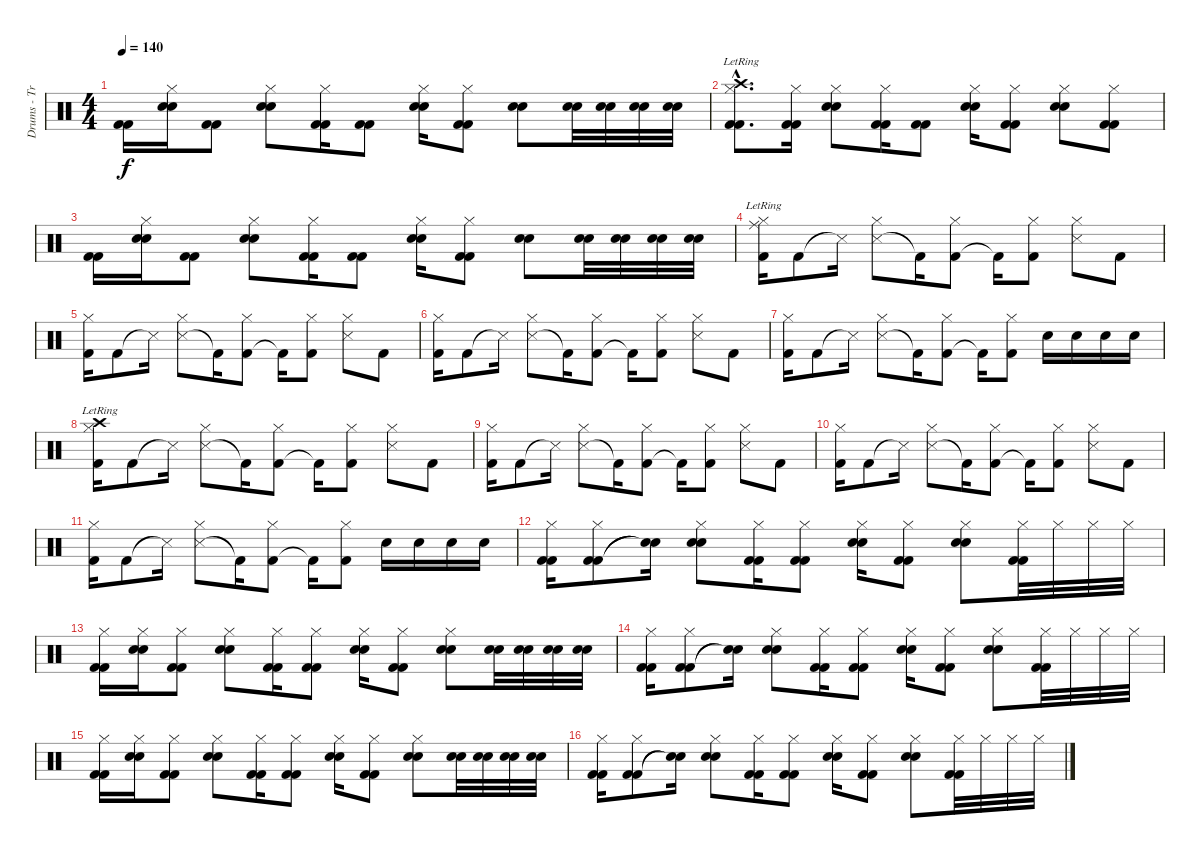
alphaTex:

\track ("Drums - Travis Barker" "Drums - Tr") {instrument percussion}
\staff {score}
\articulation defaults
\ts (4 4)
\tempo 140
\clef neutral
\ks c
("Kick (hit) 2" "Kick (hit) 2").16{dy f} ("Snare (hit) 2" "Snare (hit) 2" "Hi-Hat (closed)").16 ("Kick (hit) 2" "Kick (hit) 2").8 ("Snare (hit) 2" "Snare (hit) 2" "Hi-Hat (closed)").8 ("Kick (hit) 2" "Kick (hit) 2" "Hi-Hat (closed)").16 ("Kick (hit) 2" "Kick (hit) 2").8 ("Snare (hit) 2" "Snare (hit) 2" "Hi-Hat (closed)").16 ("Kick (hit) 2" "Kick (hit) 2" "Hi-Hat (closed)").8 ("Snare (hit) 2" "Snare (hit) 2").8 ("Snare (hit) 2" "Snare (hit) 2").32 ("Snare (hit) 2" "Snare (hit) 2").32 ("Snare (hit) 2" "Snare (hit) 2").32 ("Snare (hit) 2" "Snare (hit) 2").32 |
("Kick (hit) 2"{hac} "Kick (hit) 2"{hac} "Hi-Hat (closed)"{hac} "Crash high (hit)"{hac lr}).8{d} ("Kick (hit) 2" "Kick (hit) 2" "Hi-Hat (closed)").16 ("Snare (hit) 2" "Snare (hit) 2" "Hi-Hat (closed)").8 ("Kick (hit) 2" "Kick (hit) 2" "Hi-Hat (closed)").16 ("Kick (hit) 2" "Kick (hit) 2").8 ("Snare (hit) 2" "Snare (hit) 2" "Hi-Hat (closed)").16 ("Kick (hit) 2" "Kick (hit) 2" "Hi-Hat (closed)").8 ("Snare (hit) 2" "Snare (hit) 2" "Hi-Hat (closed)").8 ("Kick (hit) 2" "Kick (hit) 2" "Hi-Hat (closed)").8 |
("Kick (hit) 2" "Kick (hit) 2").16 ("Snare (hit) 2" "Snare (hit) 2" "Hi-Hat (closed)").16 ("Kick (hit) 2" "Kick (hit) 2").8 ("Snare (hit) 2" "Snare (hit) 2" "Hi-Hat (closed)").8 ("Kick (hit) 2" "Kick (hit) 2" "Hi-Hat (closed)").16 ("Kick (hit) 2" "Kick (hit) 2").8 ("Snare (hit) 2" "Snare (hit) 2" "Hi-Hat (closed)").16 ("Kick (hit) 2" "Kick (hit) 2" "Hi-Hat (closed)").8 ("Snare (hit) 2" "Snare (hit) 2").8 ("Snare (hit) 2" "Snare (hit) 2").32 ("Snare (hit) 2" "Snare (hit) 2").32 ("Snare (hit) 2" "Snare (hit) 2").32 ("Snare (hit) 2" "Snare (hit) 2").32 |
("Kick (hit) 2" "Hi-Hat (closed)" "Ride (middle)"{lr}).16 "Kick (hit) 2".8 "Snare (side stick) 3"{t}.16 ("Snare (side stick) 3" "Hi-Hat (closed)").8 "Kick (hit) 2"{t}.16 ("Kick (hit) 2" "Hi-Hat (closed)").8 "Kick (hit) 2"{t}.16 ("Kick (hit) 2" "Hi-Hat (closed)").8 ("Snare (side stick) 3" "Hi-Hat (closed)").8 "Kick (hit) 2".8 |
("Kick (hit) 2" "Hi-Hat (closed)").16 "Kick (hit) 2".8 "Snare (side stick) 3"{t}.16 ("Snare (side stick) 3" "Hi-Hat (closed)").8 "Kick (hit) 2"{t}.16 ("Kick (hit) 2" "Hi-Hat (closed)").8 "Kick (hit) 2"{t}.16 ("Kick (hit) 2" "Hi-Hat (closed)").8 ("Snare (side stick) 3" "Hi-Hat (closed)").8 "Kick (hit) 2".8 |
("Kick (hit) 2" "Hi-Hat (closed)").16 "Kick (hit) 2".8 "Snare (side stick) 3"{t}.16 ("Snare (side stick) 3" "Hi-Hat (closed)").8 "Kick (hit) 2"{t}.16 ("Kick (hit) 2" "Hi-Hat (closed)").8 "Kick (hit) 2"{t}.16 ("Kick (hit) 2" "Hi-Hat (closed)").8 ("Snare (side stick) 3" "Hi-Hat (closed)").8 "Kick (hit) 2".8 |
("Kick (hit) 2" "Hi-Hat (closed)").16 "Kick (hit) 2".8 "Snare (side stick) 3"{t}.16 ("Snare (side stick) 3" "Hi-Hat (closed)").8 "Kick (hit) 2"{t}.16 ("Kick (hit) 2" "Hi-Hat (closed)").8 "Kick (hit) 2"{t}.16 ("Kick (hit) 2" "Hi-Hat (closed)").8 "Snare (hit) 2".16 "Snare (hit) 2".16 "Snare (hit) 2".16 "Snare (hit) 2".16 |
("Kick (hit) 2" "Hi-Hat (closed)" "Crash high (hit)"{lr}).16 "Kick (hit) 2".8 "Snare (side stick) 3"{t}.16 ("Snare (side stick) 3" "Hi-Hat (closed)").8 "Kick (hit) 2"{t}.16 ("Kick (hit) 2" "Hi-Hat (closed)").8 "Kick (hit) 2"{t}.16 ("Kick (hit) 2" "Hi-Hat (closed)").8 ("Snare (side stick) 3" "Hi-Hat (closed)").8 "Kick (hit) 2".8 |
("Kick (hit) 2" "Hi-Hat (closed)").16 "Kick (hit) 2".8 "Snare (side stick) 3"{t}.16 ("Snare (side stick) 3" "Hi-Hat (closed)").8 "Kick (hit) 2"{t}.16 ("Kick (hit) 2" "Hi-Hat (closed)").8 "Kick (hit) 2"{t}.16 ("Kick (hit) 2" "Hi-Hat (closed)").8 ("Snare (side stick) 3" "Hi-Hat (closed)").8 "Kick (hit) 2".8 |
("Kick (hit) 2" "Hi-Hat (closed)").16 "Kick (hit) 2".8 "Snare (side stick) 3"{t}.16 ("Snare (side stick) 3" "Hi-Hat (closed)").8 "Kick (hit) 2"{t}.16 ("Kick (hit) 2" "Hi-Hat (closed)").8 "Kick (hit) 2"{t}.16 ("Kick (hit) 2" "Hi-Hat (closed)").8 ("Snare (side stick) 3" "Hi-Hat (closed)").8 "Kick (hit) 2".8 |
("Kick (hit) 2" "Hi-Hat (closed)").16 "Kick (hit) 2".8 "Snare (side stick) 3"{t}.16 ("Snare (side stick) 3" "Hi-Hat (closed)").8 "Kick (hit) 2"{t}.16 ("Kick (hit) 2" "Hi-Hat (closed)").8 "Kick (hit) 2"{t}.16 ("Kick (hit) 2" "Hi-Hat (closed)").8 "Snare (hit) 2".16 "Snare (hit) 2".16 "Snare (hit) 2".16 "Snare (hit) 2".16 |
("Kick (hit) 2" "Kick (hit) 2" "Hi-Hat (closed)").16 ("Kick (hit) 2" "Kick (hit) 2" "Hi-Hat (closed)").8 ("Snare (hit) 2"{t} "Snare (hit) 2"{t}).16 ("Snare (hit) 2" "Snare (hit) 2" "Hi-Hat (closed)").8 ("Kick (hit) 2" "Kick (hit) 2" "Hi-Hat (closed)").16 ("Kick (hit) 2" "Kick (hit) 2" "Hi-Hat (closed)").8 ("Snare (hit) 2" "Snare (hit) 2" "Hi-Hat (closed)").16 ("Kick (hit) 2" "Kick (hit) 2" "Hi-Hat (closed)").8 ("Snare (hit) 2" "Snare (hit) 2" "Hi-Hat (closed)").8 ("Kick (hit) 2" "Kick (hit) 2" "Hi-Hat (closed)").32 "Hi-Hat (closed)".32 "Hi-Hat (closed)".32 "Hi-Hat (closed)".32 |
("Kick (hit) 2" "Kick (hit) 2" "Hi-Hat (closed)").16 ("Snare (hit) 2" "Snare (hit) 2" "Hi-Hat (closed)").16 ("Kick (hit) 2" "Kick (hit) 2" "Hi-Hat (closed)").8 ("Snare (hit) 2" "Snare (hit) 2" "Hi-Hat (closed)").8 ("Kick (hit) 2" "Kick (hit) 2" "Hi-Hat (closed)").16 ("Kick (hit) 2" "Kick (hit) 2" "Hi-Hat (closed)").8 ("Snare (hit) 2" "Snare (hit) 2" "Hi-Hat (closed)").16 ("Kick (hit) 2" "Kick (hit) 2" "Hi-Hat (closed)").8 ("Snare (hit) 2" "Snare (hit) 2" "Hi-Hat (closed)").8 ("Snare (hit) 2" "Snare (hit) 2").32 ("Snare (hit) 2" "Snare (hit) 2").32 ("Snare (hit) 2" "Snare (hit) 2").32 ("Snare (hit) 2" "Snare (hit) 2").32 |
("Kick (hit) 2" "Kick (hit) 2" "Hi-Hat (closed)").16 ("Kick (hit) 2" "Kick (hit) 2" "Hi-Hat (closed)").8 ("Snare (hit) 2"{t} "Snare (hit) 2"{t}).16 ("Snare (hit) 2" "Snare (hit) 2" "Hi-Hat (closed)").8 ("Kick (hit) 2" "Kick (hit) 2" "Hi-Hat (closed)").16 ("Kick (hit) 2" "Kick (hit) 2" "Hi-Hat (closed)").8 ("Snare (hit) 2" "Snare (hit) 2" "Hi-Hat (closed)").16 ("Kick (hit) 2" "Kick (hit) 2" "Hi-Hat (closed)").8 ("Snare (hit) 2" "Snare (hit) 2" "Hi-Hat (closed)").8 ("Kick (hit) 2" "Kick (hit) 2" "Hi-Hat (closed)").32 "Hi-Hat (closed)".32 "Hi-Hat (closed)".32 "Hi-Hat (closed)".32 |
("Kick (hit) 2" "Kick (hit) 2" "Hi-Hat (closed)").16 ("Snare (hit) 2" "Snare (hit) 2" "Hi-Hat (closed)").16 ("Kick (hit) 2" "Kick (hit) 2" "Hi-Hat (closed)").8 ("Snare (hit) 2" "Snare (hit) 2" "Hi-Hat (closed)").8 ("Kick (hit) 2" "Kick (hit) 2" "Hi-Hat (closed)").16 ("Kick (hit) 2" "Kick (hit) 2" "Hi-Hat (closed)").8 ("Snare (hit) 2" "Snare (hit) 2" "Hi-Hat (closed)").16 ("Kick (hit) 2" "Kick (hit) 2" "Hi-Hat (closed)").8 ("Snare (hit) 2" "Snare (hit) 2" "Hi-Hat (closed)").8 ("Snare (hit) 2" "Snare (hit) 2").32 ("Snare (hit) 2" "Snare (hit) 2").32 ("Snare (hit) 2" "Snare (hit) 2").32 ("Snare (hit) 2" "Snare (hit) 2").32 |
("Kick (hit) 2" "Kick (hit) 2" "Hi-Hat (closed)").16 ("Kick (hit) 2" "Kick (hit) 2" "Hi-Hat (closed)").8 ("Snare (hit) 2"{t} "Snare (hit) 2"{t}).16 ("Snare (hit) 2" "Snare (hit) 2" "Hi-Hat (closed)").8 ("Kick (hit) 2" "Kick (hit) 2" "Hi-Hat (closed)").16 ("Kick (hit) 2" "Kick (hit) 2" "Hi-Hat (closed)").8 ("Snare (hit) 2" "Snare (hit) 2" "Hi-Hat (closed)").16 ("Kick (hit) 2" "Kick (hit) 2" "Hi-Hat (closed)").8 ("Snare (hit) 2" "Snare (hit) 2" "Hi-Hat (closed)").8 ("Kick (hit) 2" "Kick (hit) 2" "Hi-Hat (closed)").32 "Hi-Hat (closed)".32 "Hi-Hat (closed)".32 "Hi-Hat (closed)".32
